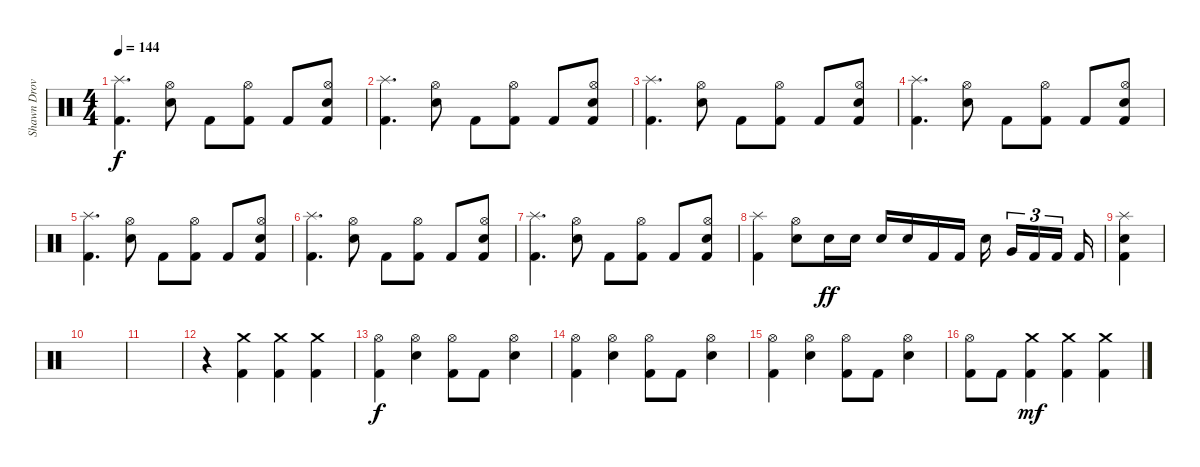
\track ("Shawn Drover" "Shawn Drov") {instrument percussion}
\staff {score}
\articulation defaults
\ts (4 4)
\tempo 144
\clef neutral
\ks c
("Splash (hit)" "Kick (hit) 2").4{d dy f} ("Hi-Hat (open)" "Electric Snare (hit)").8 "Kick (hit) 2".8 ("Hi-Hat (open)" "Kick (hit) 2").8 "Kick (hit) 2".8 ("Hi-Hat (open)" "Electric Snare (hit)" "Kick (hit) 2").8 |
("Splash (hit)" "Kick (hit) 2").4{d} ("Hi-Hat (open)" "Electric Snare (hit)").8 "Kick (hit) 2".8 ("Hi-Hat (open)" "Kick (hit) 2").8 "Kick (hit) 2".8 ("Hi-Hat (open)" "Electric Snare (hit)" "Kick (hit) 2").8 |
("Splash (hit)" "Kick (hit) 2").4{d} ("Hi-Hat (open)" "Electric Snare (hit)").8 "Kick (hit) 2".8 ("Hi-Hat (open)" "Kick (hit) 2").8 "Kick (hit) 2".8 ("Hi-Hat (open)" "Electric Snare (hit)" "Kick (hit) 2").8 |
("Splash (hit)" "Kick (hit) 2").4{d} ("Hi-Hat (open)" "Electric Snare (hit)").8 "Kick (hit) 2".8 ("Hi-Hat (open)" "Kick (hit) 2").8 "Kick (hit) 2".8 ("Hi-Hat (open)" "Electric Snare (hit)" "Kick (hit) 2").8 |
("Splash (hit)" "Kick (hit) 2").4{d} ("Hi-Hat (open)" "Electric Snare (hit)").8 "Kick (hit) 2".8 ("Hi-Hat (open)" "Kick (hit) 2").8 "Kick (hit) 2".8 ("Hi-Hat (open)" "Electric Snare (hit)" "Kick (hit) 2").8 |
("Splash (hit)" "Kick (hit) 2").4{d} ("Hi-Hat (open)" "Electric Snare (hit)").8 "Kick (hit) 2".8 ("Hi-Hat (open)" "Kick (hit) 2").8 "Kick (hit) 2".8 ("Hi-Hat (open)" "Electric Snare (hit)" "Kick (hit) 2").8 |
("Splash (hit)" "Kick (hit) 2").4{d} ("Hi-Hat (open)" "Electric Snare (hit)").8 "Kick (hit) 2".8 ("Hi-Hat (open)" "Kick (hit) 2").8 "Kick (hit) 2".8 ("Hi-Hat (open)" "Electric Snare (hit)" "Kick (hit) 2").8 |
("Splash (hit)" "Kick (hit) 2").4 ("Hi-Hat (open)" "Electric Snare (hit)").8 "Electric Snare (hit)".16{dy ff} "Electric Snare (hit)".16 "Electric Snare (hit)".16 "Electric Snare (hit)".16 "Kick (hit) 2".16 "Kick (hit) 2".16 "Electric Snare (hit)".16{beam splitsecondary} "Very Low Tom (hit)".16{tu (3 2)} "Kick (hit) 2".16{tu (3 2)} "Kick (hit) 2".16{tu (3 2) beam splitsecondary} "Kick (hit) 2".16 |
("Splash (hit)" "Electric Snare (hit)" "Kick (hit) 2").4 |
|
|
r.4 ("Crash medium (hit)" "Kick (hit) 2").4 ("Crash medium (hit)" "Kick (hit) 2").4 ("Crash medium (hit)" "Kick (hit) 2").4 |
("Hi-Hat (open)" "Kick (hit) 2").4{dy f} ("Hi-Hat (open)" "Electric Snare (hit)").4 ("Hi-Hat (open)" "Kick (hit) 2").8 "Kick (hit) 2".8 ("Hi-Hat (open)" "Electric Snare (hit)").4 |
("Hi-Hat (open)" "Kick (hit) 2").4 ("Hi-Hat (open)" "Electric Snare (hit)").4 ("Hi-Hat (open)" "Kick (hit) 2").8 "Kick (hit) 2".8 ("Hi-Hat (open)" "Electric Snare (hit)").4 |
("Hi-Hat (open)" "Kick (hit) 2").4 ("Hi-Hat (open)" "Electric Snare (hit)").4 ("Hi-Hat (open)" "Kick (hit) 2").8 "Kick (hit) 2".8 ("Hi-Hat (open)" "Electric Snare (hit)").4 |
("Hi-Hat (open)" "Kick (hit) 2").8 "Kick (hit) 2".8 ("Crash medium (hit)" "Kick (hit) 2").4{dy mf} ("Crash medium (hit)" "Kick (hit) 2").4 ("Crash medium (hit)" "Kick (hit) 2").4
